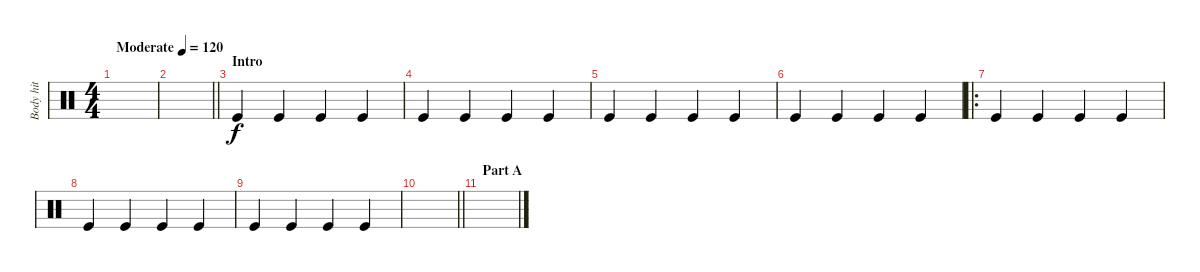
\track ("Body hit" "Body hit") {instrument percussion}
\staff {score}
\articulation defaults
\ts (4 4)
\tempo (120 "Moderate")
\clef neutral
\ks c
|
\barLineRight lightlight
|
\section ("" "Intro")
"Kick (hit)".4 "Kick (hit)".4 "Kick (hit)".4 "Kick (hit)".4 |
"Kick (hit)".4 "Kick (hit)".4 "Kick (hit)".4 "Kick (hit)".4 |
"Kick (hit)".4 "Kick (hit)".4 "Kick (hit)".4 "Kick (hit)".4 |
"Kick (hit)".4 "Kick (hit)".4 "Kick (hit)".4 "Kick (hit)".4 |
\ro "Kick (hit)".4 "Kick (hit)".4 "Kick (hit)".4 "Kick (hit)".4
|
"Kick (hit)".4 "Kick (hit)".4 "Kick (hit)".4 "Kick (hit)".4 |
"Kick (hit)".4 "Kick (hit)".4 "Kick (hit)".4 "Kick (hit)".4 |
\barLineRight lightlight
|
\section ("" "Part A")
